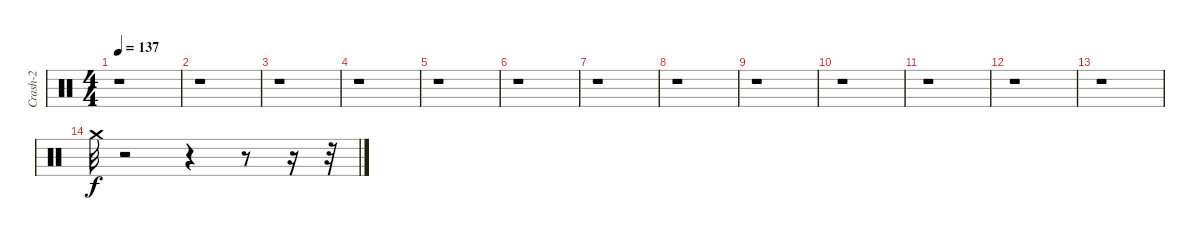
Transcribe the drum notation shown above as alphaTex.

\track ("Crash-2" "Crash-2") {instrument percussion}
\staff {score}
\articulation defaults
\ts (4 4)
\tempo 137
\clef neutral
\ks c
r.1{dy f} |
r.1 |
r.1 |
r.1 |
r.1 |
r.1 |
r.1 |
r.1 |
r.1 |
r.1 |
r.1 |
r.1 |
r.1 |
"Crash medium (hit)".32 r.2 r.4 r.8 r.16 r.32
